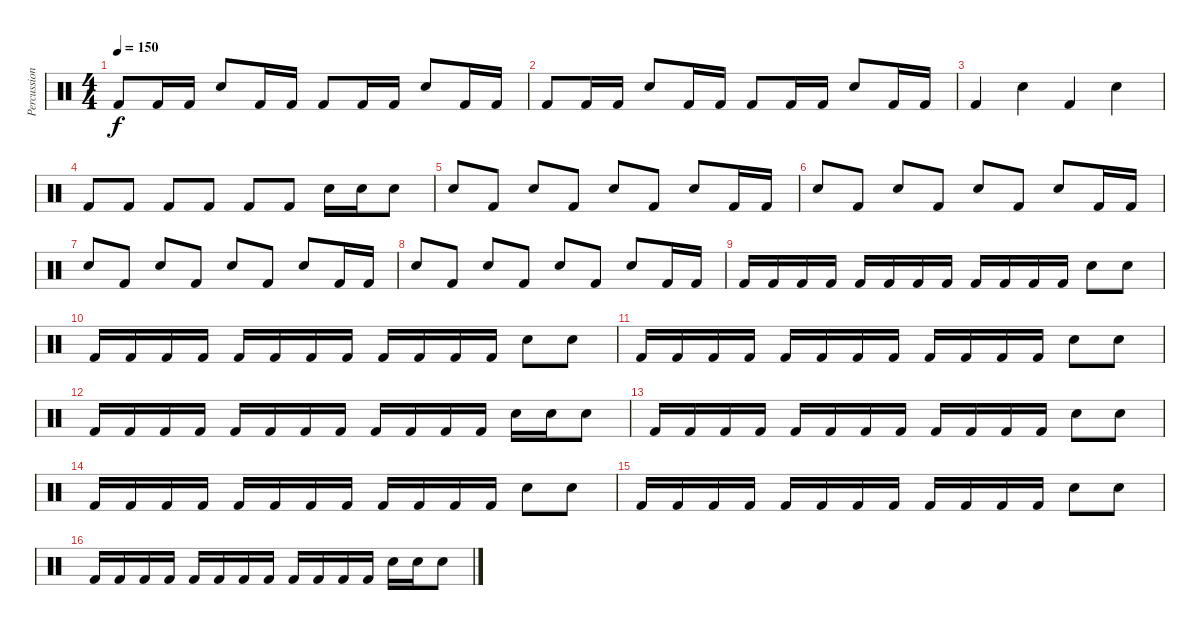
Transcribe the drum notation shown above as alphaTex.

\track ("Percussion" "Percussion") {instrument percussion}
\staff {score}
\articulation defaults
\ts (4 4)
\tempo 150
\clef neutral
\ks c "Kick (hit) 2".8{dy f} "Kick (hit) 2".16 "Kick (hit) 2".16 "Snare (hit) 2".8 "Kick (hit) 2".16 "Kick (hit) 2".16 "Kick (hit) 2".8 "Kick (hit) 2".16 "Kick (hit) 2".16 "Snare (hit) 2".8 "Kick (hit) 2".16 "Kick (hit) 2".16
|
"Kick (hit) 2".8 "Kick (hit) 2".16 "Kick (hit) 2".16 "Snare (hit) 2".8 "Kick (hit) 2".16 "Kick (hit) 2".16 "Kick (hit) 2".8 "Kick (hit) 2".16 "Kick (hit) 2".16 "Snare (hit) 2".8 "Kick (hit) 2".16 "Kick (hit) 2".16 |
"Kick (hit) 2".4 "Snare (hit) 2".4 "Kick (hit) 2".4 "Snare (hit) 2".4 |
"Kick (hit) 2".8 "Kick (hit) 2".8 "Kick (hit) 2".8 "Kick (hit) 2".8 "Kick (hit) 2".8 "Kick (hit) 2".8 "Snare (hit) 2".16 "Snare (hit) 2".16 "Snare (hit) 2".8 |
"Snare (hit) 2".8 "Kick (hit) 2".8 "Snare (hit) 2".8 "Kick (hit) 2".8 "Snare (hit) 2".8 "Kick (hit) 2".8 "Snare (hit) 2".8 "Kick (hit) 2".16 "Kick (hit) 2".16 |
"Snare (hit) 2".8 "Kick (hit) 2".8 "Snare (hit) 2".8 "Kick (hit) 2".8 "Snare (hit) 2".8 "Kick (hit) 2".8 "Snare (hit) 2".8 "Kick (hit) 2".16 "Kick (hit) 2".16 |
"Snare (hit) 2".8 "Kick (hit) 2".8 "Snare (hit) 2".8 "Kick (hit) 2".8 "Snare (hit) 2".8 "Kick (hit) 2".8 "Snare (hit) 2".8 "Kick (hit) 2".16 "Kick (hit) 2".16 |
"Snare (hit) 2".8 "Kick (hit) 2".8 "Snare (hit) 2".8 "Kick (hit) 2".8 "Snare (hit) 2".8 "Kick (hit) 2".8 "Snare (hit) 2".8 "Kick (hit) 2".16 "Kick (hit) 2".16 |
"Kick (hit) 2".16 "Kick (hit) 2".16 "Kick (hit) 2".16 "Kick (hit) 2".16 "Kick (hit) 2".16 "Kick (hit) 2".16 "Kick (hit) 2".16 "Kick (hit) 2".16 "Kick (hit) 2".16 "Kick (hit) 2".16 "Kick (hit) 2".16 "Kick (hit) 2".16 "Snare (hit) 2".8 "Snare (hit) 2".8 |
"Kick (hit) 2".16 "Kick (hit) 2".16 "Kick (hit) 2".16 "Kick (hit) 2".16 "Kick (hit) 2".16 "Kick (hit) 2".16 "Kick (hit) 2".16 "Kick (hit) 2".16 "Kick (hit) 2".16 "Kick (hit) 2".16 "Kick (hit) 2".16 "Kick (hit) 2".16 "Snare (hit) 2".8 "Snare (hit) 2".8 |
"Kick (hit) 2".16 "Kick (hit) 2".16 "Kick (hit) 2".16 "Kick (hit) 2".16 "Kick (hit) 2".16 "Kick (hit) 2".16 "Kick (hit) 2".16 "Kick (hit) 2".16 "Kick (hit) 2".16 "Kick (hit) 2".16 "Kick (hit) 2".16 "Kick (hit) 2".16 "Snare (hit) 2".8 "Snare (hit) 2".8 |
"Kick (hit) 2".16 "Kick (hit) 2".16 "Kick (hit) 2".16 "Kick (hit) 2".16 "Kick (hit) 2".16 "Kick (hit) 2".16 "Kick (hit) 2".16 "Kick (hit) 2".16 "Kick (hit) 2".16 "Kick (hit) 2".16 "Kick (hit) 2".16 "Kick (hit) 2".16 "Snare (hit) 2".16 "Snare (hit) 2".16 "Snare (hit) 2".8 |
"Kick (hit) 2".16 "Kick (hit) 2".16 "Kick (hit) 2".16 "Kick (hit) 2".16 "Kick (hit) 2".16 "Kick (hit) 2".16 "Kick (hit) 2".16 "Kick (hit) 2".16 "Kick (hit) 2".16 "Kick (hit) 2".16 "Kick (hit) 2".16 "Kick (hit) 2".16 "Snare (hit) 2".8 "Snare (hit) 2".8 |
"Kick (hit) 2".16 "Kick (hit) 2".16 "Kick (hit) 2".16 "Kick (hit) 2".16 "Kick (hit) 2".16 "Kick (hit) 2".16 "Kick (hit) 2".16 "Kick (hit) 2".16 "Kick (hit) 2".16 "Kick (hit) 2".16 "Kick (hit) 2".16 "Kick (hit) 2".16 "Snare (hit) 2".8 "Snare (hit) 2".8 |
"Kick (hit) 2".16 "Kick (hit) 2".16 "Kick (hit) 2".16 "Kick (hit) 2".16 "Kick (hit) 2".16 "Kick (hit) 2".16 "Kick (hit) 2".16 "Kick (hit) 2".16 "Kick (hit) 2".16 "Kick (hit) 2".16 "Kick (hit) 2".16 "Kick (hit) 2".16 "Snare (hit) 2".8 "Snare (hit) 2".8 |
"Kick (hit) 2".16 "Kick (hit) 2".16 "Kick (hit) 2".16 "Kick (hit) 2".16 "Kick (hit) 2".16 "Kick (hit) 2".16 "Kick (hit) 2".16 "Kick (hit) 2".16 "Kick (hit) 2".16 "Kick (hit) 2".16 "Kick (hit) 2".16 "Kick (hit) 2".16 "Snare (hit) 2".16 "Snare (hit) 2".16 "Snare (hit) 2".8
